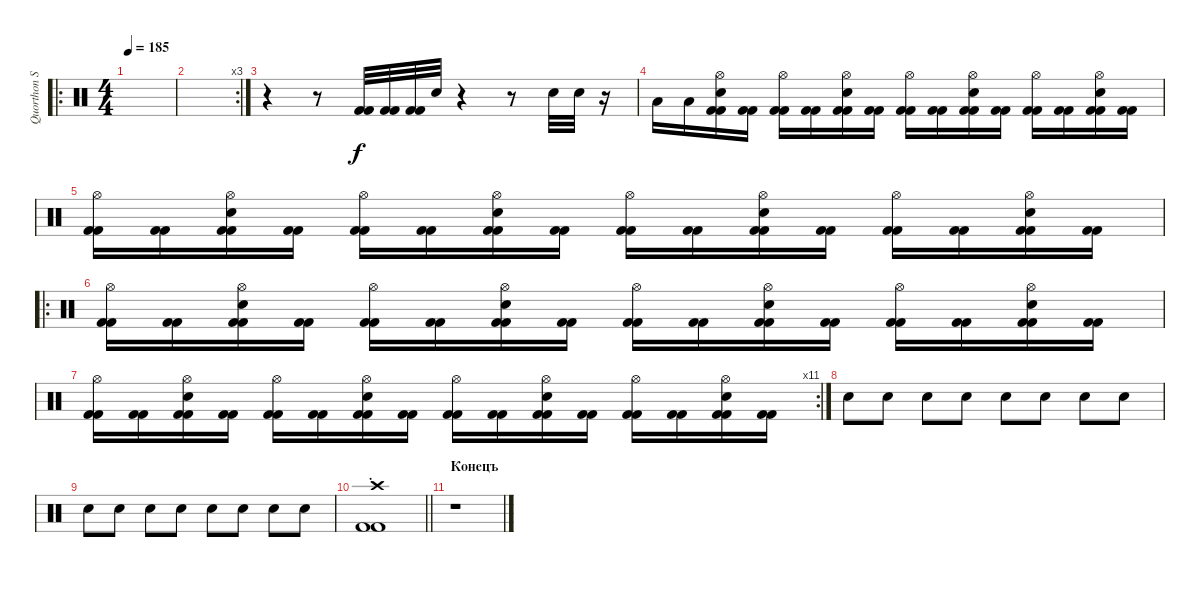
\track ("Quorthon Seth" "Quorthon S") {instrument percussion}
\staff {score}
\articulation defaults
\ro
\ts (4 4)
\tempo 185
\clef neutral
\ks c
|
\rc 3
|
r.4 r.8 ("Kick (hit) 2" "Kick (hit) 2").32 ("Kick (hit) 2" "Kick (hit) 2").32 ("Kick (hit) 2" "Kick (hit) 2").32 "Electric Snare (hit)".32 r.4 r.8 "Electric Snare (hit)".32 "Electric Snare (hit)".32 r.16 |
"Low Tom (hit)".16 "Low Tom (hit)".16 ("Hi-Hat (open)" "Kick (hit) 2" "Kick (hit) 2" "Electric Snare (hit)").16 ("Kick (hit) 2" "Kick (hit) 2").16 ("Hi-Hat (open)" "Kick (hit) 2" "Kick (hit) 2").16 ("Kick (hit) 2" "Kick (hit) 2").16 ("Hi-Hat (open)" "Kick (hit) 2" "Kick (hit) 2" "Electric Snare (hit)").16 ("Kick (hit) 2" "Kick (hit) 2").16 ("Hi-Hat (open)" "Kick (hit) 2" "Kick (hit) 2").16 ("Kick (hit) 2" "Kick (hit) 2").16 ("Hi-Hat (open)" "Kick (hit) 2" "Kick (hit) 2" "Electric Snare (hit)").16 ("Kick (hit) 2" "Kick (hit) 2").16 ("Hi-Hat (open)" "Kick (hit) 2" "Kick (hit) 2").16 ("Kick (hit) 2" "Kick (hit) 2").16 ("Hi-Hat (open)" "Kick (hit) 2" "Kick (hit) 2" "Electric Snare (hit)").16 ("Kick (hit) 2" "Kick (hit) 2").16 |
("Hi-Hat (open)" "Kick (hit) 2" "Kick (hit) 2").16 ("Kick (hit) 2" "Kick (hit) 2").16 ("Hi-Hat (open)" "Kick (hit) 2" "Kick (hit) 2" "Electric Snare (hit)").16 ("Kick (hit) 2" "Kick (hit) 2").16 ("Hi-Hat (open)" "Kick (hit) 2" "Kick (hit) 2").16 ("Kick (hit) 2" "Kick (hit) 2").16 ("Hi-Hat (open)" "Kick (hit) 2" "Kick (hit) 2" "Electric Snare (hit)").16 ("Kick (hit) 2" "Kick (hit) 2").16 ("Hi-Hat (open)" "Kick (hit) 2" "Kick (hit) 2").16 ("Kick (hit) 2" "Kick (hit) 2").16 ("Hi-Hat (open)" "Kick (hit) 2" "Kick (hit) 2" "Electric Snare (hit)").16 ("Kick (hit) 2" "Kick (hit) 2").16 ("Hi-Hat (open)" "Kick (hit) 2" "Kick (hit) 2").16 ("Kick (hit) 2" "Kick (hit) 2").16 ("Hi-Hat (open)" "Kick (hit) 2" "Kick (hit) 2" "Electric Snare (hit)").16 ("Kick (hit) 2" "Kick (hit) 2").16 |
\ro
("Hi-Hat (open)" "Kick (hit) 2" "Kick (hit) 2").16 ("Kick (hit) 2" "Kick (hit) 2").16 ("Hi-Hat (open)" "Kick (hit) 2" "Kick (hit) 2" "Electric Snare (hit)").16 ("Kick (hit) 2" "Kick (hit) 2").16 ("Hi-Hat (open)" "Kick (hit) 2" "Kick (hit) 2").16 ("Kick (hit) 2" "Kick (hit) 2").16 ("Hi-Hat (open)" "Kick (hit) 2" "Kick (hit) 2" "Electric Snare (hit)").16 ("Kick (hit) 2" "Kick (hit) 2").16 ("Hi-Hat (open)" "Kick (hit) 2" "Kick (hit) 2").16 ("Kick (hit) 2" "Kick (hit) 2").16 ("Hi-Hat (open)" "Kick (hit) 2" "Kick (hit) 2" "Electric Snare (hit)").16 ("Kick (hit) 2" "Kick (hit) 2").16 ("Hi-Hat (open)" "Kick (hit) 2" "Kick (hit) 2").16 ("Kick (hit) 2" "Kick (hit) 2").16 ("Hi-Hat (open)" "Kick (hit) 2" "Kick (hit) 2" "Electric Snare (hit)").16 ("Kick (hit) 2" "Kick (hit) 2").16 |
\rc 11
("Hi-Hat (open)" "Kick (hit) 2" "Kick (hit) 2").16 ("Kick (hit) 2" "Kick (hit) 2").16 ("Hi-Hat (open)" "Kick (hit) 2" "Kick (hit) 2" "Electric Snare (hit)").16 ("Kick (hit) 2" "Kick (hit) 2").16 ("Hi-Hat (open)" "Kick (hit) 2" "Kick (hit) 2").16 ("Kick (hit) 2" "Kick (hit) 2").16 ("Hi-Hat (open)" "Kick (hit) 2" "Kick (hit) 2" "Electric Snare (hit)").16 ("Kick (hit) 2" "Kick (hit) 2").16 ("Hi-Hat (open)" "Kick (hit) 2" "Kick (hit) 2").16 ("Kick (hit) 2" "Kick (hit) 2").16 ("Hi-Hat (open)" "Kick (hit) 2" "Kick (hit) 2" "Electric Snare (hit)").16 ("Kick (hit) 2" "Kick (hit) 2").16 ("Hi-Hat (open)" "Kick (hit) 2" "Kick (hit) 2").16 ("Kick (hit) 2" "Kick (hit) 2").16 ("Hi-Hat (open)" "Kick (hit) 2" "Kick (hit) 2" "Electric Snare (hit)").16 ("Kick (hit) 2" "Kick (hit) 2").16 |
"Electric Snare (hit)".8 "Electric Snare (hit)".8 "Electric Snare (hit)".8 "Electric Snare (hit)".8 "Electric Snare (hit)".8 "Electric Snare (hit)".8 "Electric Snare (hit)".8 "Electric Snare (hit)".8 |
"Electric Snare (hit)".8 "Electric Snare (hit)".8 "Electric Snare (hit)".8 "Electric Snare (hit)".8 "Electric Snare (hit)".8 "Electric Snare (hit)".8 "Electric Snare (hit)".8 "Electric Snare (hit)".8 |
\barLineRight lightlight
("Crash high (hit)"{st} "Kick (hit) 2"{st} "Kick (hit) 2"{st}).1 |
\section ("" "Конецъ")
r.1
